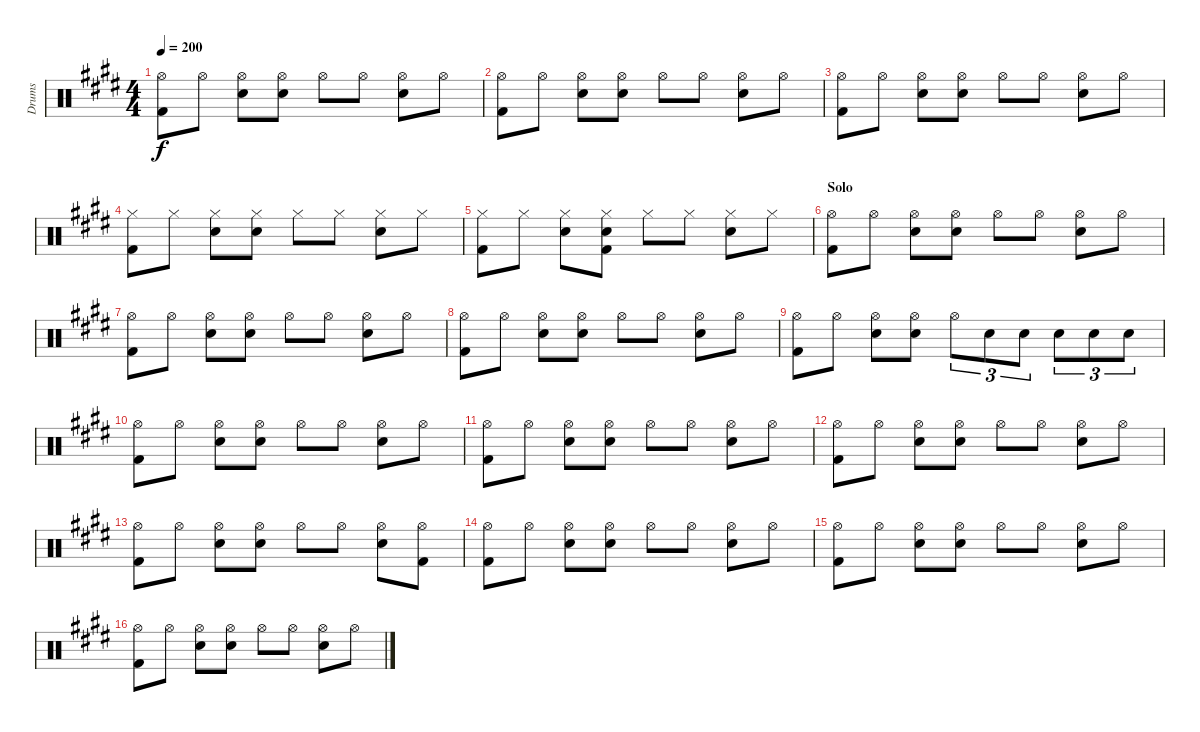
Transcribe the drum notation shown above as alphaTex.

\track ("Drums" "Drums") {instrument percussion}
\staff {score}
\articulation defaults
\ts (4 4)
\tempo 200
\clef neutral
\ks e
("Hi-Hat (open)" "Kick (hit) 2").8{dy f} "Hi-Hat (open)".8 ("Hi-Hat (open)" "Snare (hit) 2").8 ("Hi-Hat (open)" "Snare (hit) 2").8 "Hi-Hat (open)".8 "Hi-Hat (open)".8 ("Hi-Hat (open)" "Snare (hit) 2").8 "Hi-Hat (open)".8 |
("Hi-Hat (open)" "Kick (hit) 2").8 "Hi-Hat (open)".8 ("Hi-Hat (open)" "Snare (hit) 2").8 ("Hi-Hat (open)" "Snare (hit) 2").8 "Hi-Hat (open)".8 "Hi-Hat (open)".8 ("Hi-Hat (open)" "Snare (hit) 2").8 "Hi-Hat (open)".8 |
("Hi-Hat (open)" "Kick (hit) 2").8 "Hi-Hat (open)".8 ("Hi-Hat (open)" "Snare (hit) 2").8 ("Hi-Hat (open)" "Snare (hit) 2").8 "Hi-Hat (open)".8 "Hi-Hat (open)".8 ("Hi-Hat (open)" "Snare (hit) 2").8 "Hi-Hat (open)".8 |
("Hi-Hat (closed)" "Kick (hit) 2").8 "Hi-Hat (closed)".8 ("Hi-Hat (closed)" "Snare (hit) 2").8 ("Hi-Hat (closed)" "Snare (hit) 2").8 "Hi-Hat (closed)".8 "Hi-Hat (closed)".8 ("Hi-Hat (closed)" "Snare (hit) 2").8 "Hi-Hat (closed)".8 |
("Hi-Hat (closed)" "Kick (hit) 2").8 "Hi-Hat (closed)".8 ("Hi-Hat (closed)" "Snare (hit) 2").8 ("Hi-Hat (closed)" "Snare (hit) 2" "Kick (hit) 2").8 "Hi-Hat (closed)".8 "Hi-Hat (closed)".8 ("Hi-Hat (closed)" "Snare (hit) 2").8 "Hi-Hat (closed)".8 |
\section ("" "Solo")
("Hi-Hat (open)" "Kick (hit) 2").8 "Hi-Hat (open)".8 ("Hi-Hat (open)" "Snare (hit) 2").8 ("Hi-Hat (open)" "Snare (hit) 2").8 "Hi-Hat (open)".8 "Hi-Hat (open)".8 ("Hi-Hat (open)" "Snare (hit) 2").8 "Hi-Hat (open)".8 |
("Hi-Hat (open)" "Kick (hit) 2").8 "Hi-Hat (open)".8 ("Hi-Hat (open)" "Snare (hit) 2").8 ("Hi-Hat (open)" "Snare (hit) 2").8 "Hi-Hat (open)".8 "Hi-Hat (open)".8 ("Hi-Hat (open)" "Snare (hit) 2").8 "Hi-Hat (open)".8 |
("Hi-Hat (open)" "Kick (hit) 2").8 "Hi-Hat (open)".8 ("Hi-Hat (open)" "Snare (hit) 2").8 ("Hi-Hat (open)" "Snare (hit) 2").8 "Hi-Hat (open)".8 "Hi-Hat (open)".8 ("Hi-Hat (open)" "Snare (hit) 2").8 "Hi-Hat (open)".8 |
("Hi-Hat (open)" "Kick (hit) 2").8 "Hi-Hat (open)".8 ("Hi-Hat (open)" "Snare (hit) 2").8 ("Hi-Hat (open)" "Snare (hit) 2").8 "Hi-Hat (open)".8{tu (3 2)} "Snare (hit) 2".8{tu (3 2)} "Snare (hit) 2".8{tu (3 2)} "Snare (hit) 2".8{tu (3 2)} "Snare (hit) 2".8{tu (3 2)} "Snare (hit) 2".8{tu (3 2)} |
("Hi-Hat (open)" "Kick (hit) 2").8 "Hi-Hat (open)".8 ("Hi-Hat (open)" "Snare (hit) 2").8 ("Hi-Hat (open)" "Snare (hit) 2").8 "Hi-Hat (open)".8 "Hi-Hat (open)".8 ("Hi-Hat (open)" "Snare (hit) 2").8 "Hi-Hat (open)".8 |
("Hi-Hat (open)" "Kick (hit) 2").8 "Hi-Hat (open)".8 ("Hi-Hat (open)" "Snare (hit) 2").8 ("Hi-Hat (open)" "Snare (hit) 2").8 "Hi-Hat (open)".8 "Hi-Hat (open)".8 ("Hi-Hat (open)" "Snare (hit) 2").8 "Hi-Hat (open)".8 |
("Hi-Hat (open)" "Kick (hit) 2").8 "Hi-Hat (open)".8 ("Hi-Hat (open)" "Snare (hit) 2").8 ("Hi-Hat (open)" "Snare (hit) 2").8 "Hi-Hat (open)".8 "Hi-Hat (open)".8 ("Hi-Hat (open)" "Snare (hit) 2").8 "Hi-Hat (open)".8 |
("Hi-Hat (open)" "Kick (hit) 2").8 "Hi-Hat (open)".8 ("Hi-Hat (open)" "Snare (hit) 2").8 ("Hi-Hat (open)" "Snare (hit) 2").8 "Hi-Hat (open)".8 "Hi-Hat (open)".8 ("Hi-Hat (open)" "Snare (hit) 2").8 ("Hi-Hat (open)" "Kick (hit) 2").8 |
("Hi-Hat (open)" "Kick (hit) 2").8 "Hi-Hat (open)".8 ("Hi-Hat (open)" "Snare (hit) 2").8 ("Hi-Hat (open)" "Snare (hit) 2").8 "Hi-Hat (open)".8 "Hi-Hat (open)".8 ("Hi-Hat (open)" "Snare (hit) 2").8 "Hi-Hat (open)".8 |
("Hi-Hat (open)" "Kick (hit) 2").8 "Hi-Hat (open)".8 ("Hi-Hat (open)" "Snare (hit) 2").8 ("Hi-Hat (open)" "Snare (hit) 2").8 "Hi-Hat (open)".8 "Hi-Hat (open)".8 ("Hi-Hat (open)" "Snare (hit) 2").8 "Hi-Hat (open)".8 |
("Hi-Hat (open)" "Kick (hit) 2").8 "Hi-Hat (open)".8 ("Hi-Hat (open)" "Snare (hit) 2").8 ("Hi-Hat (open)" "Snare (hit) 2").8 "Hi-Hat (open)".8 "Hi-Hat (open)".8 ("Hi-Hat (open)" "Snare (hit) 2").8 "Hi-Hat (open)".8
